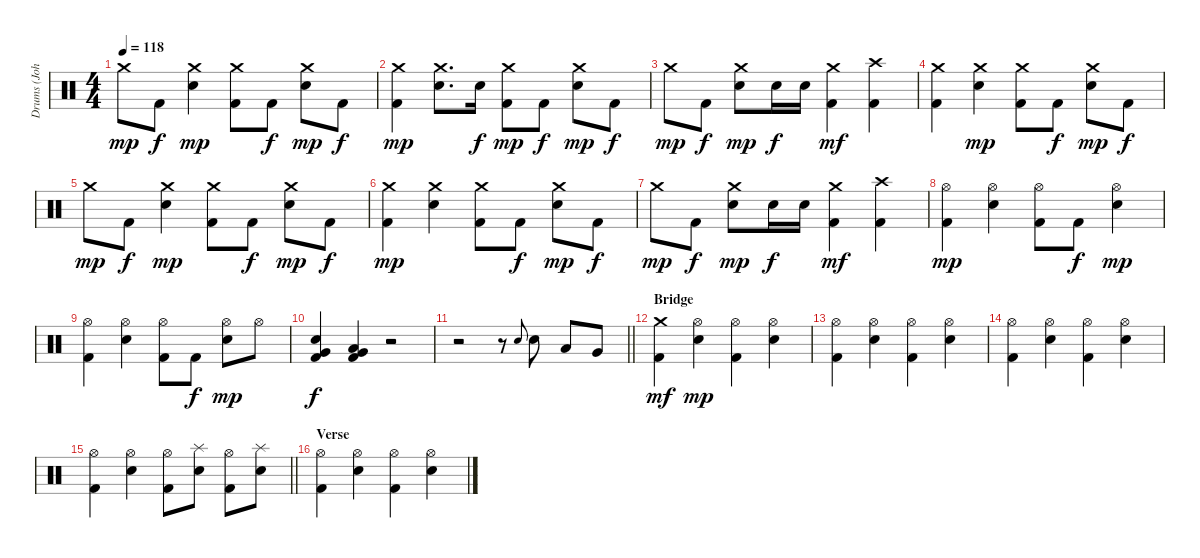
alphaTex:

\track ("Drums (John Fred Young)" "Drums (Joh") {instrument percussion}
\staff {score}
\articulation defaults
\ts (4 4)
\tempo 118
\clef neutral
\ks c "Crash medium (hit)".8{dy mp} "Kick (hit) 2".8{dy f}
("Crash medium (hit)" "Electric Snare (hit)").4{dy mp} ("Crash medium (hit)" "Kick (hit) 2").8 "Kick (hit) 2".8{dy f} ("Crash medium (hit)" "Electric Snare (hit)").8{dy mp} "Kick (hit) 2".8{dy f} |
("Crash medium (hit)" "Kick (hit) 2").4{dy mp} ("Crash medium (hit)" "Electric Snare (hit)").8{d} "Electric Snare (hit)".16{dy f} ("Crash medium (hit)" "Kick (hit) 2").8{dy mp} "Kick (hit) 2".8{dy f} ("Crash medium (hit)" "Electric Snare (hit)").8{dy mp} "Kick (hit) 2".8{dy f} |
"Crash medium (hit)".8{dy mp} "Kick (hit) 2".8{dy f} ("Crash medium (hit)" "Electric Snare (hit)").8{dy mp} "Electric Snare (hit)".16{dy f} "Electric Snare (hit)".16 ("Crash medium (hit)" "Kick (hit) 2").4{dy mf} ("Crash high (hit)" "Kick (hit) 2").4 |
("Crash medium (hit)" "Kick (hit) 2").4 ("Crash medium (hit)" "Electric Snare (hit)").4{dy mp} ("Crash medium (hit)" "Kick (hit) 2").8 "Kick (hit) 2".8{dy f} ("Crash medium (hit)" "Electric Snare (hit)").8{dy mp} "Kick (hit) 2".8{dy f} |
"Crash medium (hit)".8{dy mp} "Kick (hit) 2".8{dy f} ("Crash medium (hit)" "Electric Snare (hit)").4{dy mp} ("Crash medium (hit)" "Kick (hit) 2").8 "Kick (hit) 2".8{dy f} ("Crash medium (hit)" "Electric Snare (hit)").8{dy mp} "Kick (hit) 2".8{dy f} |
("Crash medium (hit)" "Kick (hit) 2").4{dy mp} ("Crash medium (hit)" "Electric Snare (hit)").4 ("Crash medium (hit)" "Kick (hit) 2").8 "Kick (hit) 2".8{dy f} ("Crash medium (hit)" "Electric Snare (hit)").8{dy mp} "Kick (hit) 2".8{dy f} |
"Crash medium (hit)".8{dy mp} "Kick (hit) 2".8{dy f} ("Crash medium (hit)" "Electric Snare (hit)").8{dy mp} "Electric Snare (hit)".16{dy f} "Electric Snare (hit)".16 ("Crash medium (hit)" "Kick (hit) 2").4{dy mf} ("Crash high (hit)" "Kick (hit) 2").4 |
("Hi-Hat (open)" "Kick (hit) 2").4{dy mp} ("Hi-Hat (open)" "Electric Snare (hit)").4 ("Hi-Hat (open)" "Kick (hit) 2").8 "Kick (hit) 2".8{dy f} ("Hi-Hat (open)" "Electric Snare (hit)").4{dy mp} |
("Hi-Hat (open)" "Kick (hit) 2").4 ("Hi-Hat (open)" "Electric Snare (hit)").4 ("Hi-Hat (open)" "Kick (hit) 2").8 "Kick (hit) 2".8{dy f} ("Hi-Hat (open)" "Electric Snare (hit)").8{dy mp} "Hi-Hat (open)".8 |
("Electric Snare (hit)" "Very Low Tom (hit)" "Kick (hit) 2").4{dy f} ("Very Low Tom (hit)" "Low Floor Tom (hit)" "Kick (hit) 2").4 r.2 |
\barLineRight lightlight
r.2 r.8 "Electric Snare (hit)".8{gr onbeat} "Electric Snare (hit)".8 "Low Tom (hit)".8 "Very Low Tom (hit)".8 |
\section ("" "Bridge")
("Crash medium (hit)" "Kick (hit) 2").4{dy mf} ("Hi-Hat (open)" "Electric Snare (hit)").4{dy mp} ("Hi-Hat (open)" "Kick (hit) 2").4 ("Hi-Hat (open)" "Electric Snare (hit)").4 |
("Hi-Hat (open)" "Kick (hit) 2").4 ("Hi-Hat (open)" "Electric Snare (hit)").4 ("Hi-Hat (open)" "Kick (hit) 2").4 ("Hi-Hat (open)" "Electric Snare (hit)").4 |
("Hi-Hat (open)" "Kick (hit) 2").4 ("Hi-Hat (open)" "Electric Snare (hit)").4 ("Hi-Hat (open)" "Kick (hit) 2").4 ("Hi-Hat (open)" "Electric Snare (hit)").4 |
\barLineRight lightlight
("Hi-Hat (open)" "Kick (hit) 2").4 ("Hi-Hat (open)" "Electric Snare (hit)").4 ("Hi-Hat (open)" "Kick (hit) 2").8 ("Splash (hit)" "Electric Snare (hit)").8 ("Hi-Hat (open)" "Kick (hit) 2").8 ("Splash (hit)" "Electric Snare (hit)").8 |
\section ("" "Verse")
("Hi-Hat (open)" "Kick (hit) 2").4 ("Hi-Hat (open)" "Electric Snare (hit)").4 ("Hi-Hat (open)" "Kick (hit) 2").4 ("Hi-Hat (open)" "Electric Snare (hit)").4
